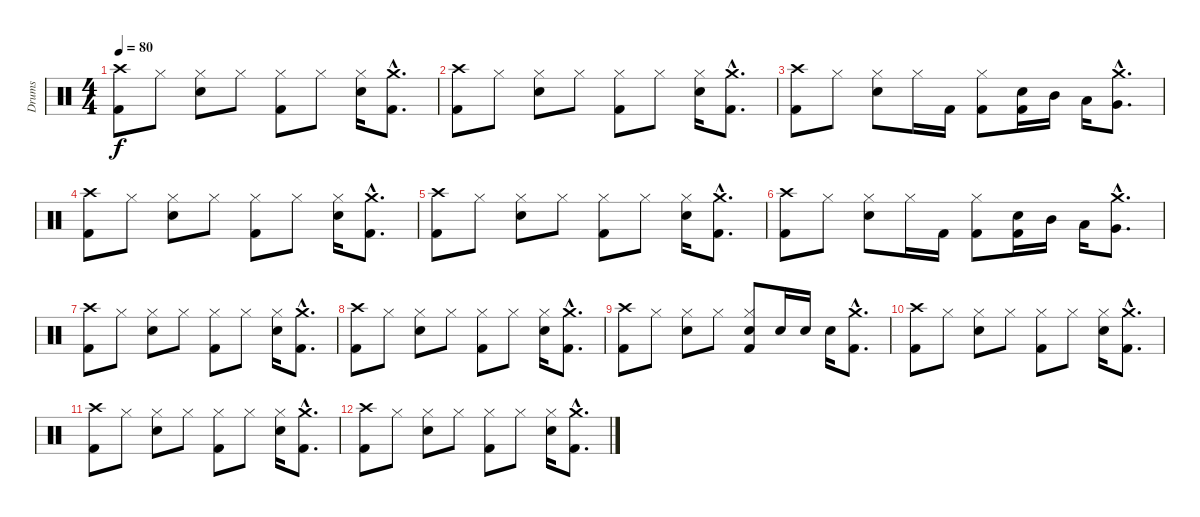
\track ("Drums" "Drums") {instrument percussion}
\staff {score}
\articulation defaults
\ts (4 4)
\tempo 80
\clef neutral
\ks c
("Kick (hit) 2" "Crash high (hit)").8{dy f} "Hi-Hat (closed)".8 ("Snare (hit) 2" "Hi-Hat (closed)").8 "Hi-Hat (closed)".8 ("Kick (hit) 2" "Hi-Hat (closed)").8 "Hi-Hat (closed)".8 ("Snare (hit) 2" "Hi-Hat (closed)").16 ("Kick (hit) 2"{hac} "Crash medium (hit)"{hac}).8{d} |
("Kick (hit) 2" "Crash high (hit)").8 "Hi-Hat (closed)".8 ("Snare (hit) 2" "Hi-Hat (closed)").8 "Hi-Hat (closed)".8 ("Kick (hit) 2" "Hi-Hat (closed)").8 "Hi-Hat (closed)".8 ("Snare (hit) 2" "Hi-Hat (closed)").16 ("Kick (hit) 2"{hac} "Crash medium (hit)"{hac}).8{d} |
("Kick (hit) 2" "Crash high (hit)").8 "Hi-Hat (closed)".8 ("Snare (hit) 2" "Hi-Hat (closed)").8 "Hi-Hat (closed)".16 "Kick (hit) 2".16 ("Kick (hit) 2" "Hi-Hat (closed)").8 ("Kick (hit) 2" "Snare (hit) 2").16 "Mid Tom (hit)".16 "Low Tom (hit)".16 ("Very Low Tom (hit)"{hac} "Crash medium (hit)"{hac}).8{d} |
("Kick (hit) 2" "Crash high (hit)").8 "Hi-Hat (closed)".8 ("Snare (hit) 2" "Hi-Hat (closed)").8 "Hi-Hat (closed)".8 ("Kick (hit) 2" "Hi-Hat (closed)").8 "Hi-Hat (closed)".8 ("Snare (hit) 2" "Hi-Hat (closed)").16 ("Kick (hit) 2"{hac} "Crash medium (hit)"{hac}).8{d} |
("Kick (hit) 2" "Crash high (hit)").8{volume 8} "Hi-Hat (closed)".8 ("Snare (hit) 2" "Hi-Hat (closed)").8 "Hi-Hat (closed)".8 ("Kick (hit) 2" "Hi-Hat (closed)").8 "Hi-Hat (closed)".8 ("Snare (hit) 2" "Hi-Hat (closed)").16 ("Kick (hit) 2"{hac} "Crash medium (hit)"{hac}).8{d} |
("Kick (hit) 2" "Crash high (hit)").8 "Hi-Hat (closed)".8 ("Snare (hit) 2" "Hi-Hat (closed)").8 "Hi-Hat (closed)".16 "Kick (hit) 2".16 ("Kick (hit) 2" "Hi-Hat (closed)").8 ("Kick (hit) 2" "Snare (hit) 2").16 "Mid Tom (hit)".16 "Low Tom (hit)".16 ("Very Low Tom (hit)"{hac} "Crash medium (hit)"{hac}).8{d} |
("Kick (hit) 2" "Crash high (hit)").8{volume 5} "Hi-Hat (closed)".8 ("Snare (hit) 2" "Hi-Hat (closed)").8 "Hi-Hat (closed)".8 ("Kick (hit) 2" "Hi-Hat (closed)").8 "Hi-Hat (closed)".8 ("Snare (hit) 2" "Hi-Hat (closed)").16 ("Kick (hit) 2"{hac} "Crash medium (hit)"{hac}).8{d} |
("Kick (hit) 2" "Crash high (hit)").8 "Hi-Hat (closed)".8 ("Snare (hit) 2" "Hi-Hat (closed)").8 "Hi-Hat (closed)".8 ("Kick (hit) 2" "Hi-Hat (closed)").8 "Hi-Hat (closed)".8 ("Snare (hit) 2" "Hi-Hat (closed)").16 ("Kick (hit) 2"{hac} "Crash medium (hit)"{hac}).8{d} |
("Kick (hit) 2" "Crash high (hit)").8{volume 1} "Hi-Hat (closed)".8 ("Snare (hit) 2" "Hi-Hat (closed)").8 "Hi-Hat (closed)".8 ("Kick (hit) 2" "Snare (hit) 2" "Hi-Hat (closed)").8 "Snare (hit) 2".16 "Snare (hit) 2".16 "Snare (hit) 2".16 ("Kick (hit) 2"{hac} "Crash medium (hit)"{hac}).8{d} |
("Kick (hit) 2" "Crash high (hit)").8 "Hi-Hat (closed)".8 ("Snare (hit) 2" "Hi-Hat (closed)").8 "Hi-Hat (closed)".8 ("Kick (hit) 2" "Hi-Hat (closed)").8 "Hi-Hat (closed)".8 ("Snare (hit) 2" "Hi-Hat (closed)").16 ("Kick (hit) 2"{hac} "Crash medium (hit)"{hac}).8{d} |
("Kick (hit) 2" "Crash high (hit)").8{volume 0} "Hi-Hat (closed)".8 ("Snare (hit) 2" "Hi-Hat (closed)").8 "Hi-Hat (closed)".8 ("Kick (hit) 2" "Hi-Hat (closed)").8 "Hi-Hat (closed)".8 ("Snare (hit) 2" "Hi-Hat (closed)").16 ("Kick (hit) 2"{hac} "Crash medium (hit)"{hac}).8{d} |
("Kick (hit) 2" "Crash high (hit)").8 "Hi-Hat (closed)".8 ("Snare (hit) 2" "Hi-Hat (closed)").8 "Hi-Hat (closed)".8 ("Kick (hit) 2" "Hi-Hat (closed)").8 "Hi-Hat (closed)".8 ("Snare (hit) 2" "Hi-Hat (closed)").16 ("Kick (hit) 2"{hac} "Crash medium (hit)"{hac}).8{d}
